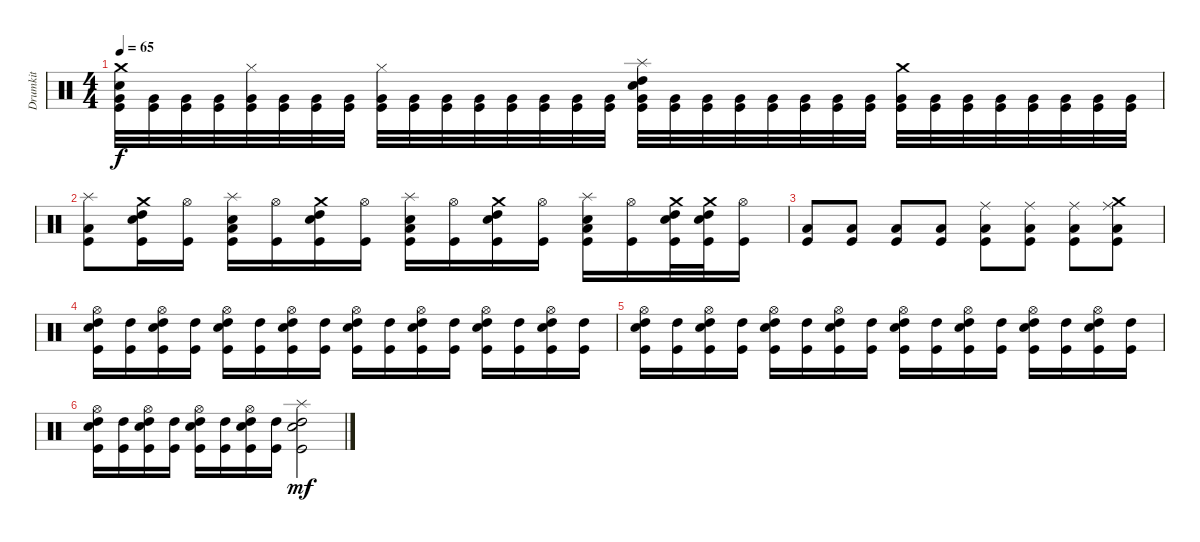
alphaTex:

\track ("Drumkit" "Drumkit") {instrument percussion}
\staff {score}
\articulation defaults
\ts (4 4)
\tempo 65
\clef neutral
\ks c
("Kick (hit)" "Very Low Tom (hit)" "Snare (hit) 2" "Crash medium (hit)").32{dy f} ("Kick (hit)" "Very Low Tom (hit)").32 ("Kick (hit)" "Very Low Tom (hit)").32 ("Kick (hit)" "Very Low Tom (hit)").32 ("Kick (hit)" "Very Low Tom (hit)" "Hi-Hat (closed)").32 ("Kick (hit)" "Very Low Tom (hit)").32 ("Kick (hit)" "Very Low Tom (hit)").32 ("Kick (hit)" "Very Low Tom (hit)").32 ("Kick (hit)" "Very Low Tom (hit)" "Hi-Hat (closed)").32 ("Kick (hit)" "Very Low Tom (hit)").32 ("Kick (hit)" "Very Low Tom (hit)").32 ("Kick (hit)" "Very Low Tom (hit)").32 ("Kick (hit)" "Very Low Tom (hit)").32 ("Kick (hit)" "Very Low Tom (hit)").32 ("Kick (hit)" "Very Low Tom (hit)").32 ("Kick (hit)" "Very Low Tom (hit)").32 ("Kick (hit)" "Very Low Tom (hit)" "Snare (hit) 2" "High Tom (hit)" "Splash (hit)").32 ("Kick (hit)" "Very Low Tom (hit)").32 ("Kick (hit)" "Very Low Tom (hit)").32 ("Kick (hit)" "Very Low Tom (hit)").32 ("Kick (hit)" "Very Low Tom (hit)").32 ("Kick (hit)" "Very Low Tom (hit)").32 ("Kick (hit)" "Very Low Tom (hit)").32 ("Kick (hit)" "Very Low Tom (hit)").32 ("Kick (hit)" "Very Low Tom (hit)" "Crash medium (hit)").32 ("Kick (hit)" "Very Low Tom (hit)").32 ("Kick (hit)" "Very Low Tom (hit)").32 ("Kick (hit)" "Very Low Tom (hit)").32 ("Kick (hit)" "Very Low Tom (hit)").32 ("Kick (hit)" "Very Low Tom (hit)").32 ("Kick (hit)" "Very Low Tom (hit)").32 ("Kick (hit)" "Very Low Tom (hit)").32 |
("Splash (hit)" "Kick (hit)" "Low Tom (hit)").8 ("Kick (hit)" "Snare (hit) 2" "High Tom (hit)" "Crash medium (hit)").16 ("Kick (hit)" "Hi-Hat (open)").16 ("Kick (hit)" "Low Tom (hit)" "Splash (hit)" "Snare (hit) 2").16 ("Kick (hit)" "Hi-Hat (open)").16 ("Kick (hit)" "Snare (hit) 2" "High Tom (hit)" "Crash medium (hit)").16 ("Kick (hit)" "Hi-Hat (open)").16 ("Kick (hit)" "Low Tom (hit)" "Splash (hit)" "Snare (hit) 2").16 ("Kick (hit)" "Hi-Hat (open)").16 ("Kick (hit)" "Snare (hit) 2" "High Tom (hit)" "Crash medium (hit)").16 ("Kick (hit)" "Hi-Hat (open)").16 ("Kick (hit)" "Low Tom (hit)" "Splash (hit)" "Snare (hit) 2").16 ("Kick (hit)" "Hi-Hat (open)").16 ("Kick (hit)" "Snare (hit) 2" "High Tom (hit)" "Crash medium (hit)").32 ("Kick (hit)" "Snare (hit) 2" "High Tom (hit)" "Crash medium (hit)").32 ("Kick (hit)" "Hi-Hat (open)").16 |
("Kick (hit)" "Low Tom (hit)").8 ("Kick (hit)" "Low Tom (hit)").8 ("Kick (hit)" "Low Tom (hit)").8 ("Kick (hit)" "Low Tom (hit)").8 ("Kick (hit)" "Low Tom (hit)" "Ride (middle)").8 ("Kick (hit)" "Low Tom (hit)" "Ride (middle)").8 ("Kick (hit)" "Low Tom (hit)" "Ride (middle)").8 ("Kick (hit)" "Low Tom (hit)" "Ride (middle)" "Crash medium (hit)").8 |
("Kick (hit)" "Snare (hit) 2" "Hi-Hat (open)" "High Tom (hit)").16 ("Kick (hit)" "High Tom (hit)").16 ("Kick (hit)" "Snare (hit) 2" "Hi-Hat (open)" "High Tom (hit)").16 ("Kick (hit)" "High Tom (hit)").16 ("Kick (hit)" "Snare (hit) 2" "Hi-Hat (open)" "High Tom (hit)").16 ("Kick (hit)" "High Tom (hit)").16 ("Kick (hit)" "Snare (hit) 2" "Hi-Hat (open)" "High Tom (hit)").16 ("Kick (hit)" "High Tom (hit)").16 ("Kick (hit)" "Snare (hit) 2" "Hi-Hat (open)" "High Tom (hit)").16 ("Kick (hit)" "High Tom (hit)").16 ("Kick (hit)" "Snare (hit) 2" "Hi-Hat (open)" "High Tom (hit)").16 ("Kick (hit)" "High Tom (hit)").16 ("Kick (hit)" "Snare (hit) 2" "Hi-Hat (open)" "High Tom (hit)").16 ("Kick (hit)" "High Tom (hit)").16 ("Kick (hit)" "Snare (hit) 2" "Hi-Hat (open)" "High Tom (hit)").16 ("Kick (hit)" "High Tom (hit)").16 |
("Kick (hit)" "Snare (hit) 2" "Hi-Hat (open)" "High Tom (hit)").16 ("Kick (hit)" "High Tom (hit)").16 ("Kick (hit)" "Snare (hit) 2" "Hi-Hat (open)" "High Tom (hit)").16 ("Kick (hit)" "High Tom (hit)").16 ("Kick (hit)" "Snare (hit) 2" "Hi-Hat (open)" "High Tom (hit)").16 ("Kick (hit)" "High Tom (hit)").16 ("Kick (hit)" "Snare (hit) 2" "Hi-Hat (open)" "High Tom (hit)").16 ("Kick (hit)" "High Tom (hit)").16 ("Kick (hit)" "Snare (hit) 2" "Hi-Hat (open)" "High Tom (hit)").16 ("Kick (hit)" "High Tom (hit)").16 ("Kick (hit)" "Snare (hit) 2" "Hi-Hat (open)" "High Tom (hit)").16 ("Kick (hit)" "High Tom (hit)").16 ("Kick (hit)" "Snare (hit) 2" "Hi-Hat (open)" "High Tom (hit)").16 ("Kick (hit)" "High Tom (hit)").16 ("Kick (hit)" "Snare (hit) 2" "Hi-Hat (open)" "High Tom (hit)").16 ("Kick (hit)" "High Tom (hit)").16 |
("Kick (hit)" "Snare (hit) 2" "Hi-Hat (open)" "High Tom (hit)").16 ("Kick (hit)" "High Tom (hit)").16 ("Kick (hit)" "Snare (hit) 2" "Hi-Hat (open)" "High Tom (hit)").16 ("Kick (hit)" "High Tom (hit)").16 ("Kick (hit)" "Snare (hit) 2" "Hi-Hat (open)" "High Tom (hit)").16 ("Kick (hit)" "High Tom (hit)").16 ("Kick (hit)" "Snare (hit) 2" "Hi-Hat (open)" "High Tom (hit)").16 ("Kick (hit)" "High Tom (hit)").16 ("Kick (hit)" "Snare (hit) 2" "Splash (hit)" "High Tom (hit)").2{dy mf}
